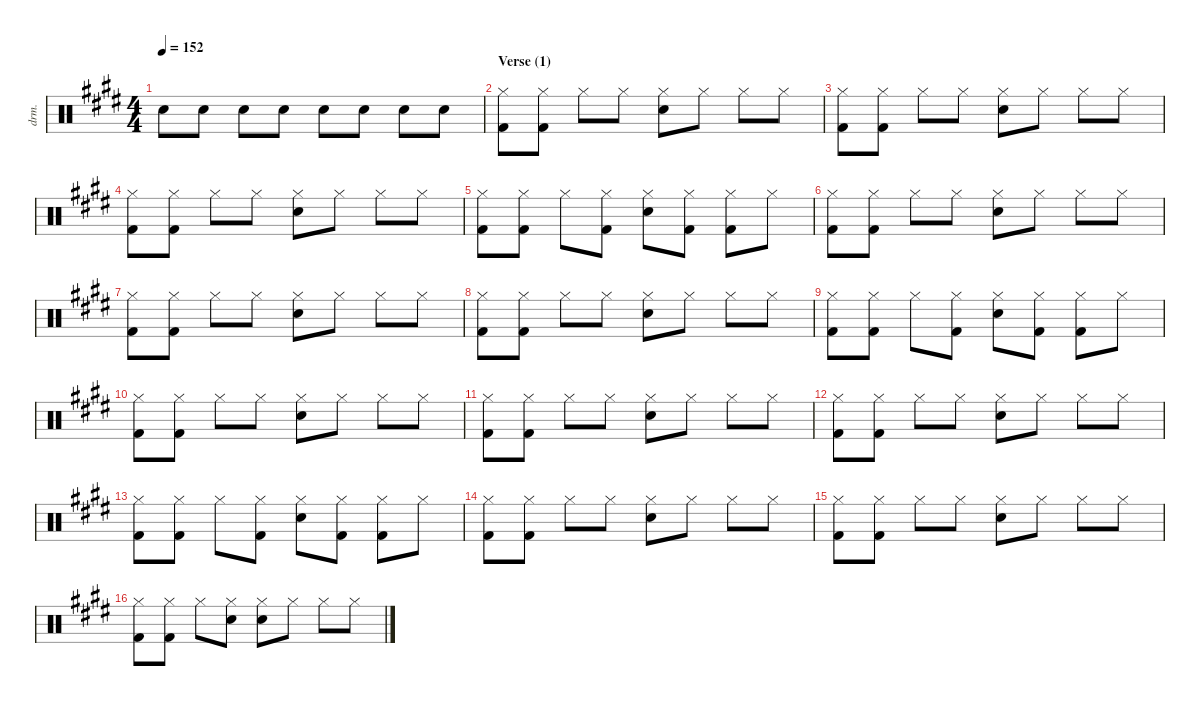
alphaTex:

\defaultSystemsLayout 4
\hideDynamics
\bracketExtendMode nobrackets
\otherSystemsTrackNameOrientation horizontal
\track ("Drums" "drm.") {instrument percussion}
\staff {score}
\articulation defaults
\ts (4 4)
\tempo 152
\clef neutral
\ks c#minor "Snare (hit) 2"{acc forcenatural}.8{dy f} "Snare (hit) 2"{acc forcenatural}.8 "Snare (hit) 2"{acc forcenatural}.8 "Snare (hit) 2"{acc forcenatural}.8 "Snare (hit) 2"{acc forcenatural}.8 "Snare (hit) 2"{acc forcenatural}.8 "Snare (hit) 2"{acc forcenatural}.8 "Snare (hit) 2"{acc forcenatural}.8
|
\section ("" "Verse (1)")
("Kick (hit) 2"{acc forcenatural} "Hi-Hat (closed)"{acc forcenatural}).8 ("Hi-Hat (closed)"{acc forcenatural} "Kick (hit) 2"{acc forcenatural}).8 "Hi-Hat (closed)"{acc forcenatural}.8 "Hi-Hat (closed)"{acc forcenatural}.8 ("Snare (hit) 2"{acc forcenatural} "Hi-Hat (closed)"{acc forcenatural}).8 "Hi-Hat (closed)"{acc forcenatural}.8 "Hi-Hat (closed)"{acc forcenatural}.8 "Hi-Hat (closed)"{acc forcenatural}.8 |
("Kick (hit) 2"{acc forcenatural} "Hi-Hat (closed)"{acc forcenatural}).8 ("Hi-Hat (closed)"{acc forcenatural} "Kick (hit) 2"{acc forcenatural}).8 "Hi-Hat (closed)"{acc forcenatural}.8 "Hi-Hat (closed)"{acc forcenatural}.8 ("Snare (hit) 2"{acc forcenatural} "Hi-Hat (closed)"{acc forcenatural}).8 "Hi-Hat (closed)"{acc forcenatural}.8 "Hi-Hat (closed)"{acc forcenatural}.8 "Hi-Hat (closed)"{acc forcenatural}.8 |
("Kick (hit) 2"{acc forcenatural} "Hi-Hat (closed)"{acc forcenatural}).8 ("Hi-Hat (closed)"{acc forcenatural} "Kick (hit) 2"{acc forcenatural}).8 "Hi-Hat (closed)"{acc forcenatural}.8 "Hi-Hat (closed)"{acc forcenatural}.8 ("Snare (hit) 2"{acc forcenatural} "Hi-Hat (closed)"{acc forcenatural}).8 "Hi-Hat (closed)"{acc forcenatural}.8 "Hi-Hat (closed)"{acc forcenatural}.8 "Hi-Hat (closed)"{acc forcenatural}.8 |
("Kick (hit) 2"{acc forcenatural} "Hi-Hat (closed)"{acc forcenatural}).8 ("Hi-Hat (closed)"{acc forcenatural} "Kick (hit) 2"{acc forcenatural}).8 "Hi-Hat (closed)"{acc forcenatural}.8 ("Kick (hit) 2"{acc forcenatural} "Hi-Hat (closed)"{acc forcenatural}).8 ("Snare (hit) 2"{acc forcenatural} "Hi-Hat (closed)"{acc forcenatural}).8 ("Kick (hit) 2"{acc forcenatural} "Hi-Hat (closed)"{acc forcenatural}).8 ("Kick (hit) 2"{acc forcenatural} "Hi-Hat (closed)"{acc forcenatural}).8 "Hi-Hat (closed)"{acc forcenatural}.8 |
("Kick (hit) 2"{acc forcenatural} "Hi-Hat (closed)"{acc forcenatural}).8 ("Hi-Hat (closed)"{acc forcenatural} "Kick (hit) 2"{acc forcenatural}).8 "Hi-Hat (closed)"{acc forcenatural}.8 "Hi-Hat (closed)"{acc forcenatural}.8 ("Snare (hit) 2"{acc forcenatural} "Hi-Hat (closed)"{acc forcenatural}).8 "Hi-Hat (closed)"{acc forcenatural}.8 "Hi-Hat (closed)"{acc forcenatural}.8 "Hi-Hat (closed)"{acc forcenatural}.8 |
("Kick (hit) 2"{acc forcenatural} "Hi-Hat (closed)"{acc forcenatural}).8 ("Hi-Hat (closed)"{acc forcenatural} "Kick (hit) 2"{acc forcenatural}).8 "Hi-Hat (closed)"{acc forcenatural}.8 "Hi-Hat (closed)"{acc forcenatural}.8 ("Snare (hit) 2"{acc forcenatural} "Hi-Hat (closed)"{acc forcenatural}).8 "Hi-Hat (closed)"{acc forcenatural}.8 "Hi-Hat (closed)"{acc forcenatural}.8 "Hi-Hat (closed)"{acc forcenatural}.8 |
("Kick (hit) 2"{acc forcenatural} "Hi-Hat (closed)"{acc forcenatural}).8 ("Hi-Hat (closed)"{acc forcenatural} "Kick (hit) 2"{acc forcenatural}).8 "Hi-Hat (closed)"{acc forcenatural}.8 "Hi-Hat (closed)"{acc forcenatural}.8 ("Snare (hit) 2"{acc forcenatural} "Hi-Hat (closed)"{acc forcenatural}).8 "Hi-Hat (closed)"{acc forcenatural}.8 "Hi-Hat (closed)"{acc forcenatural}.8 "Hi-Hat (closed)"{acc forcenatural}.8 |
("Kick (hit) 2"{acc forcenatural} "Hi-Hat (closed)"{acc forcenatural}).8 ("Hi-Hat (closed)"{acc forcenatural} "Kick (hit) 2"{acc forcenatural}).8 "Hi-Hat (closed)"{acc forcenatural}.8 ("Kick (hit) 2"{acc forcenatural} "Hi-Hat (closed)"{acc forcenatural}).8 ("Snare (hit) 2"{acc forcenatural} "Hi-Hat (closed)"{acc forcenatural}).8 ("Kick (hit) 2"{acc forcenatural} "Hi-Hat (closed)"{acc forcenatural}).8 ("Kick (hit) 2"{acc forcenatural} "Hi-Hat (closed)"{acc forcenatural}).8 "Hi-Hat (closed)"{acc forcenatural}.8 |
("Kick (hit) 2"{acc forcenatural} "Hi-Hat (closed)"{acc forcenatural}).8 ("Hi-Hat (closed)"{acc forcenatural} "Kick (hit) 2"{acc forcenatural}).8 "Hi-Hat (closed)"{acc forcenatural}.8 "Hi-Hat (closed)"{acc forcenatural}.8 ("Snare (hit) 2"{acc forcenatural} "Hi-Hat (closed)"{acc forcenatural}).8 "Hi-Hat (closed)"{acc forcenatural}.8 "Hi-Hat (closed)"{acc forcenatural}.8 "Hi-Hat (closed)"{acc forcenatural}.8 |
("Kick (hit) 2"{acc forcenatural} "Hi-Hat (closed)"{acc forcenatural}).8 ("Hi-Hat (closed)"{acc forcenatural} "Kick (hit) 2"{acc forcenatural}).8 "Hi-Hat (closed)"{acc forcenatural}.8 "Hi-Hat (closed)"{acc forcenatural}.8 ("Snare (hit) 2"{acc forcenatural} "Hi-Hat (closed)"{acc forcenatural}).8 "Hi-Hat (closed)"{acc forcenatural}.8 "Hi-Hat (closed)"{acc forcenatural}.8 "Hi-Hat (closed)"{acc forcenatural}.8 |
("Kick (hit) 2"{acc forcenatural} "Hi-Hat (closed)"{acc forcenatural}).8 ("Hi-Hat (closed)"{acc forcenatural} "Kick (hit) 2"{acc forcenatural}).8 "Hi-Hat (closed)"{acc forcenatural}.8 "Hi-Hat (closed)"{acc forcenatural}.8 ("Snare (hit) 2"{acc forcenatural} "Hi-Hat (closed)"{acc forcenatural}).8 "Hi-Hat (closed)"{acc forcenatural}.8 "Hi-Hat (closed)"{acc forcenatural}.8 "Hi-Hat (closed)"{acc forcenatural}.8 |
("Kick (hit) 2"{acc forcenatural} "Hi-Hat (closed)"{acc forcenatural}).8 ("Hi-Hat (closed)"{acc forcenatural} "Kick (hit) 2"{acc forcenatural}).8 "Hi-Hat (closed)"{acc forcenatural}.8 ("Kick (hit) 2"{acc forcenatural} "Hi-Hat (closed)"{acc forcenatural}).8 ("Snare (hit) 2"{acc forcenatural} "Hi-Hat (closed)"{acc forcenatural}).8 ("Kick (hit) 2"{acc forcenatural} "Hi-Hat (closed)"{acc forcenatural}).8 ("Kick (hit) 2"{acc forcenatural} "Hi-Hat (closed)"{acc forcenatural}).8 "Hi-Hat (closed)"{acc forcenatural}.8 |
("Kick (hit) 2"{acc forcenatural} "Hi-Hat (closed)"{acc forcenatural}).8 ("Hi-Hat (closed)"{acc forcenatural} "Kick (hit) 2"{acc forcenatural}).8 "Hi-Hat (closed)"{acc forcenatural}.8 "Hi-Hat (closed)"{acc forcenatural}.8 ("Snare (hit) 2"{acc forcenatural} "Hi-Hat (closed)"{acc forcenatural}).8 "Hi-Hat (closed)"{acc forcenatural}.8 "Hi-Hat (closed)"{acc forcenatural}.8 "Hi-Hat (closed)"{acc forcenatural}.8 |
("Kick (hit) 2"{acc forcenatural} "Hi-Hat (closed)"{acc forcenatural}).8 ("Hi-Hat (closed)"{acc forcenatural} "Kick (hit) 2"{acc forcenatural}).8 "Hi-Hat (closed)"{acc forcenatural}.8 "Hi-Hat (closed)"{acc forcenatural}.8 ("Snare (hit) 2"{acc forcenatural} "Hi-Hat (closed)"{acc forcenatural}).8 "Hi-Hat (closed)"{acc forcenatural}.8 "Hi-Hat (closed)"{acc forcenatural}.8 "Hi-Hat (closed)"{acc forcenatural}.8 |
("Kick (hit) 2"{acc forcenatural} "Hi-Hat (closed)"{acc forcenatural}).8 ("Hi-Hat (closed)"{acc forcenatural} "Kick (hit) 2"{acc forcenatural}).8 "Hi-Hat (closed)"{acc forcenatural}.8 ("Snare (hit) 2"{acc forcenatural} "Hi-Hat (closed)"{acc forcenatural}).8 ("Snare (hit) 2"{acc forcenatural} "Hi-Hat (closed)"{acc forcenatural}).8 "Hi-Hat (closed)"{acc forcenatural}.8 "Hi-Hat (closed)"{acc forcenatural}.8 "Hi-Hat (closed)"{acc forcenatural}.8
